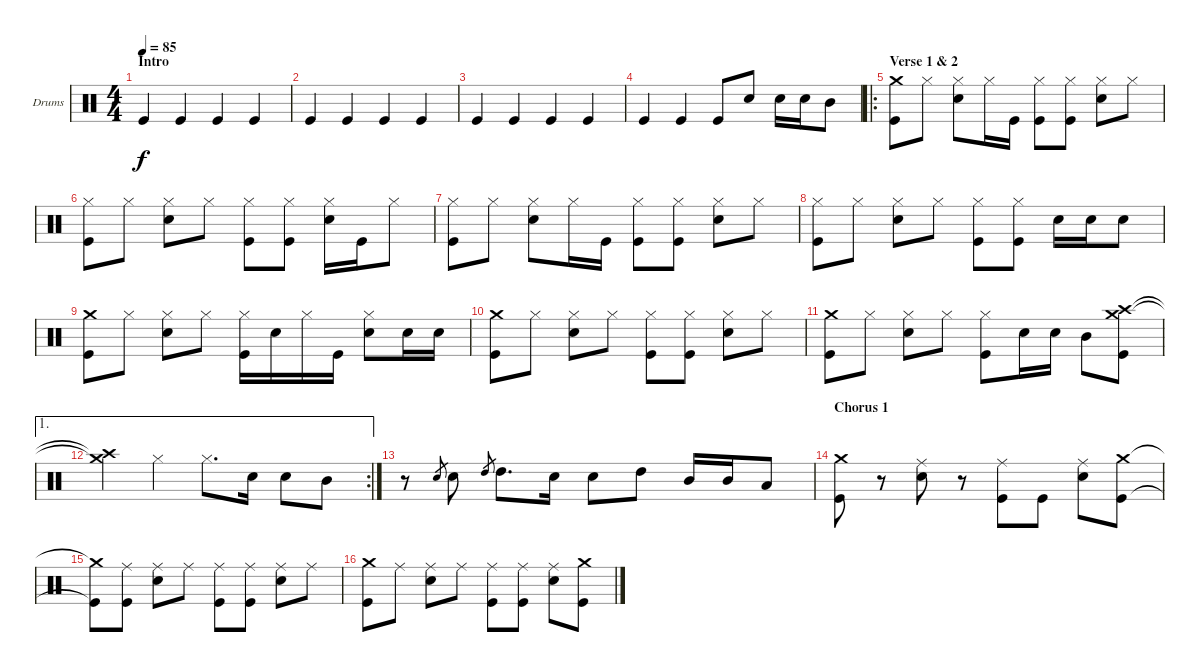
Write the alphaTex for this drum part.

\defaultSystemsLayout 4
\bracketExtendMode groupsimilarinstruments
\firstSystemTrackNameOrientation horizontal
\otherSystemsTrackNameOrientation horizontal
\track ("Matt" "Drums") {instrument percussion}
\staff {score}
\articulation defaults
\ts (4 4)
\section ("" "Intro")
\tempo 85
\clef neutral
\ks c "Kick (hit)".4{dy f} "Kick (hit)".4 "Kick (hit)".4 "Kick (hit)".4
|
"Kick (hit)".4 "Kick (hit)".4 "Kick (hit)".4 "Kick (hit)".4 |
"Kick (hit)".4 "Kick (hit)".4 "Kick (hit)".4 "Kick (hit)".4 |
"Kick (hit)".4 "Kick (hit)".4 "Kick (hit)".8 "Snare (hit) 2".8 "Snare (hit) 2".16 "Snare (hit) 2".16 "Mid Tom (hit)".8 |
\ro
\section ("" "Verse 1 & 2")
("Crash medium (hit)" "Kick (hit)").8 "Hi-Hat (closed)".8 ("Hi-Hat (closed)" "Snare (hit) 2").8 "Hi-Hat (closed)".16 "Kick (hit)".16 ("Hi-Hat (closed)" "Kick (hit)").8 ("Hi-Hat (closed)" "Kick (hit)").8 ("Hi-Hat (closed)" "Snare (hit) 2").8 "Hi-Hat (closed)".8 |
("Hi-Hat (closed)" "Kick (hit)").8 "Hi-Hat (closed)".8 ("Hi-Hat (closed)" "Snare (hit) 2").8 "Hi-Hat (closed)".8 ("Hi-Hat (closed)" "Kick (hit)").8 ("Hi-Hat (closed)" "Kick (hit)").8 ("Hi-Hat (closed)" "Snare (hit) 2").16 "Kick (hit)".16 "Hi-Hat (closed)".8 |
("Hi-Hat (closed)" "Kick (hit)").8 "Hi-Hat (closed)".8 ("Hi-Hat (closed)" "Snare (hit) 2").8 "Hi-Hat (closed)".16 "Kick (hit)".16 ("Hi-Hat (closed)" "Kick (hit)").8 ("Hi-Hat (closed)" "Kick (hit)").8 ("Hi-Hat (closed)" "Snare (hit) 2").8 "Hi-Hat (closed)".8 |
("Hi-Hat (closed)" "Kick (hit)").8 "Hi-Hat (closed)".8 ("Hi-Hat (closed)" "Snare (hit) 2").8 "Hi-Hat (closed)".8 ("Hi-Hat (closed)" "Kick (hit)").8 ("Hi-Hat (closed)" "Kick (hit)").8 "Snare (hit) 2".16 "Snare (hit) 2".16 "Snare (hit) 2".8 |
("Crash medium (hit)" "Kick (hit)").8 "Hi-Hat (closed)".8 ("Hi-Hat (closed)" "Snare (hit) 2").8 "Hi-Hat (closed)".8 ("Hi-Hat (closed)" "Kick (hit)").16 "Snare (hit) 2".16 "Hi-Hat (closed)".16 "Kick (hit)".16 ("Hi-Hat (closed)" "Snare (hit) 2").8 "Snare (hit) 2".16 "Snare (hit) 2".16 |
("Crash medium (hit)" "Kick (hit)").8 "Hi-Hat (closed)".8 ("Hi-Hat (closed)" "Snare (hit) 2").8 "Hi-Hat (closed)".8 ("Hi-Hat (closed)" "Kick (hit)").8 ("Hi-Hat (closed)" "Kick (hit)").8 ("Hi-Hat (closed)" "Snare (hit) 2").8 "Hi-Hat (closed)".8 |
("Crash medium (hit)" "Kick (hit)").8 "Hi-Hat (closed)".8 ("Hi-Hat (closed)" "Snare (hit) 2").8 "Hi-Hat (closed)".8 ("Hi-Hat (closed)" "Kick (hit)").8 "Snare (hit) 2".16 "Snare (hit) 2".16 "Mid Tom (hit)".8 ("Crash high (hit)" "Crash medium (hit)" "Kick (hit)").8 |
\ae 1
\rc 2
("Crash high (hit)"{t} "Crash medium (hit)"{t}).4 "Hi-Hat (closed)".4 "Hi-Hat (closed)".8{d} "Snare (hit) 2".16 "Snare (hit) 2".8 "Mid Tom (hit)".8 |
r.8 "Snare (hit) 2".8{gr} "Snare (hit) 2".8 "High Tom (hit)".8{gr} "High Tom (hit)".8{d} "Snare (hit) 2".16 "Snare (hit) 2".8 "High Tom (hit)".8 "Mid Tom (hit)".16 "Mid Tom (hit)".16 "Low Tom (hit)".8 |
\section ("" "Chorus 1")
("Crash medium (hit)" "Kick (hit)").8 r.8 ("Ride (middle)" "Snare (hit) 2").8 r.8 ("Ride (middle)" "Kick (hit)").8 "Kick (hit)".8 ("Ride (middle)" "Snare (hit) 2").8 ("Crash medium (hit)" "Kick (hit)").8 |
("Crash medium (hit)"{t} "Kick (hit)"{t}).8 ("Ride (middle)" "Kick (hit)").8 ("Ride (middle)" "Snare (hit) 2").8 "Ride (middle)".8 ("Ride (middle)" "Kick (hit)").8 ("Ride (middle)" "Kick (hit)").8 ("Ride (middle)" "Snare (hit) 2").8 "Ride (middle)".8 |
("Crash medium (hit)" "Kick (hit)").8 "Ride (middle)".8 ("Ride (middle)" "Snare (hit) 2").8 "Ride (middle)".8 ("Ride (middle)" "Kick (hit)").8 ("Ride (middle)" "Kick (hit)").8 ("Ride (middle)" "Snare (hit) 2").8 ("Crash medium (hit)" "Kick (hit)").8
